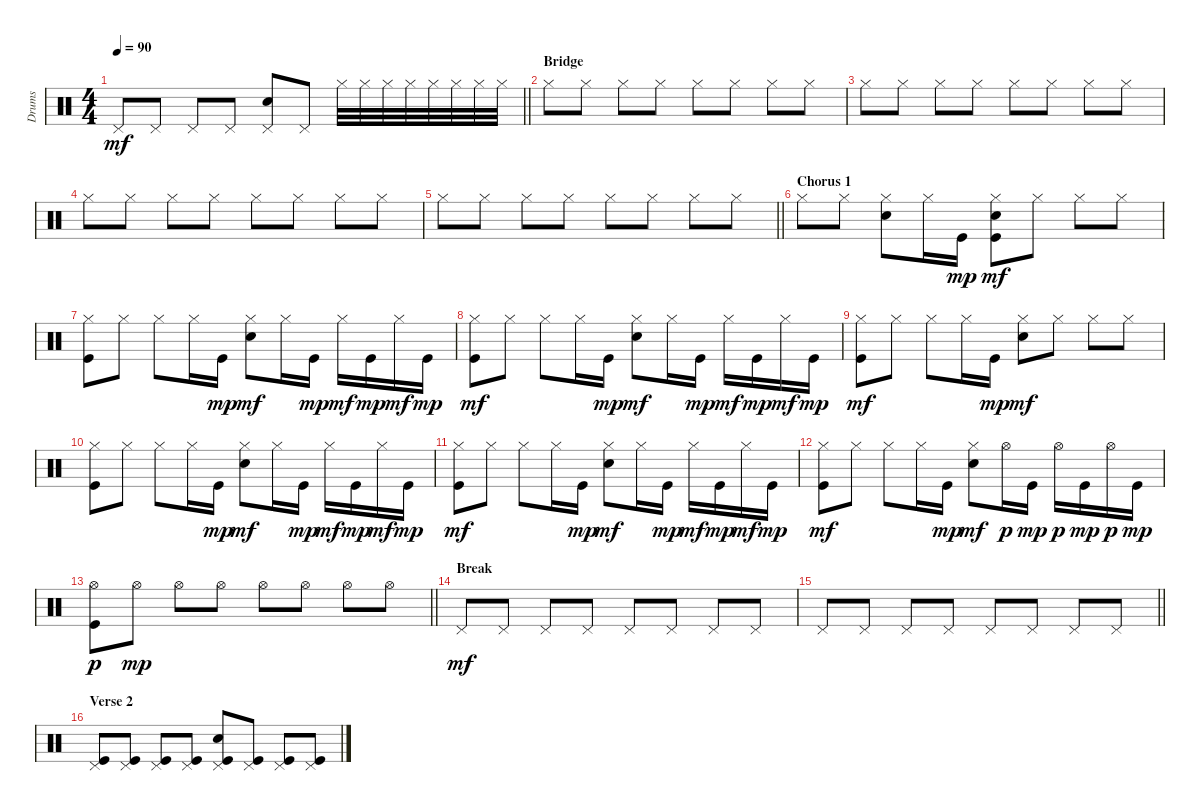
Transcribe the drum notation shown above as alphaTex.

\track ("Drums" "Drums") {instrument percussion}
\staff {score}
\articulation defaults
\ts (4 4)
\tempo 90
\clef neutral
\barLineRight lightlight
\ks c "Pedal Hi-Hat (hit)".8{dy mf} "Pedal Hi-Hat (hit)".8 "Pedal Hi-Hat (hit)".8 "Pedal Hi-Hat (hit)".8
("Electric Snare (hit)" "Pedal Hi-Hat (hit)").8 "Pedal Hi-Hat (hit)".8 "Hi-Hat (closed)".32 "Hi-Hat (closed)".32 "Hi-Hat (closed)".32 "Hi-Hat (closed)".32 "Hi-Hat (closed)".32 "Hi-Hat (closed)".32 "Hi-Hat (closed)".32 "Hi-Hat (closed)".32 |
\section ("" "Bridge")
"Hi-Hat (closed)".8 "Hi-Hat (closed)".8 "Hi-Hat (closed)".8 "Hi-Hat (closed)".8 "Hi-Hat (closed)".8 "Hi-Hat (closed)".8 "Hi-Hat (closed)".8 "Hi-Hat (closed)".8 |
"Hi-Hat (closed)".8 "Hi-Hat (closed)".8 "Hi-Hat (closed)".8 "Hi-Hat (closed)".8 "Hi-Hat (closed)".8 "Hi-Hat (closed)".8 "Hi-Hat (closed)".8 "Hi-Hat (closed)".8 |
"Hi-Hat (closed)".8 "Hi-Hat (closed)".8 "Hi-Hat (closed)".8 "Hi-Hat (closed)".8 "Hi-Hat (closed)".8 "Hi-Hat (closed)".8 "Hi-Hat (closed)".8 "Hi-Hat (closed)".8 |
\barLineRight lightlight "Hi-Hat (closed)".8 "Hi-Hat (closed)".8 "Hi-Hat (closed)".8 "Hi-Hat (closed)".8 "Hi-Hat (closed)".8 "Hi-Hat (closed)".8 "Hi-Hat (closed)".8 "Hi-Hat (closed)".8
|
\section ("" "Chorus 1")
"Hi-Hat (closed)".8 "Hi-Hat (closed)".8 ("Electric Snare (hit)" "Hi-Hat (closed)").8 "Hi-Hat (closed)".16 "Kick (hit)".16{dy mp} ("Kick (hit)" "Electric Snare (hit)" "Hi-Hat (closed)").8{dy mf} "Hi-Hat (closed)".8 "Hi-Hat (closed)".8 "Hi-Hat (closed)".8 |
("Kick (hit)" "Hi-Hat (closed)").8 "Hi-Hat (closed)".8 "Hi-Hat (closed)".8 "Hi-Hat (closed)".16 "Kick (hit)".16{dy mp} ("Electric Snare (hit)" "Hi-Hat (closed)").8{dy mf} "Hi-Hat (closed)".16 "Kick (hit)".16{dy mp} "Hi-Hat (closed)".16{dy mf} "Kick (hit)".16{dy mp} "Hi-Hat (closed)".16{dy mf} "Kick (hit)".16{dy mp} |
("Kick (hit)" "Hi-Hat (closed)").8{dy mf} "Hi-Hat (closed)".8 "Hi-Hat (closed)".8 "Hi-Hat (closed)".16 "Kick (hit)".16{dy mp} ("Electric Snare (hit)" "Hi-Hat (closed)").8{dy mf} "Hi-Hat (closed)".16 "Kick (hit)".16{dy mp} "Hi-Hat (closed)".16{dy mf} "Kick (hit)".16{dy mp} "Hi-Hat (closed)".16{dy mf} "Kick (hit)".16{dy mp} |
("Kick (hit)" "Hi-Hat (closed)").8{dy mf} "Hi-Hat (closed)".8 "Hi-Hat (closed)".8 "Hi-Hat (closed)".16 "Kick (hit)".16{dy mp} ("Electric Snare (hit)" "Hi-Hat (closed)").8{dy mf} "Hi-Hat (closed)".8 "Hi-Hat (closed)".8 "Hi-Hat (closed)".8 |
("Kick (hit)" "Hi-Hat (closed)").8 "Hi-Hat (closed)".8 "Hi-Hat (closed)".8 "Hi-Hat (closed)".16 "Kick (hit)".16{dy mp} ("Electric Snare (hit)" "Hi-Hat (closed)").8{dy mf} "Hi-Hat (closed)".16 "Kick (hit)".16{dy mp} "Hi-Hat (closed)".16{dy mf} "Kick (hit)".16{dy mp} "Hi-Hat (closed)".16{dy mf} "Kick (hit)".16{dy mp} |
("Kick (hit)" "Hi-Hat (closed)").8{dy mf} "Hi-Hat (closed)".8 "Hi-Hat (closed)".8 "Hi-Hat (closed)".16 "Kick (hit)".16{dy mp} ("Electric Snare (hit)" "Hi-Hat (closed)").8{dy mf} "Hi-Hat (closed)".16 "Kick (hit)".16{dy mp} "Hi-Hat (closed)".16{dy mf} "Kick (hit)".16{dy mp} "Hi-Hat (closed)".16{dy mf} "Kick (hit)".16{dy mp} |
("Kick (hit)" "Hi-Hat (closed)").8{dy mf} "Hi-Hat (closed)".8 "Hi-Hat (closed)".8 "Hi-Hat (closed)".16 "Kick (hit)".16{dy mp} ("Electric Snare (hit)" "Hi-Hat (closed)").8{dy mf} "Hi-Hat (open)".16{dy p} "Kick (hit)".16{dy mp} "Hi-Hat (open)".16{dy p} "Kick (hit)".16{dy mp} "Hi-Hat (open)".16{dy p} "Kick (hit)".16{dy mp} |
\barLineRight lightlight
("Kick (hit)" "Hi-Hat (open)").8{dy p} "Hi-Hat (open)".8{dy mp} "Hi-Hat (open)".8 "Hi-Hat (open)".8 "Hi-Hat (open)".8 "Hi-Hat (open)".8 "Hi-Hat (open)".8 "Hi-Hat (open)".8 |
\section ("" "Break")
"Pedal Hi-Hat (hit)".8{dy mf} "Pedal Hi-Hat (hit)".8 "Pedal Hi-Hat (hit)".8 "Pedal Hi-Hat (hit)".8 "Pedal Hi-Hat (hit)".8 "Pedal Hi-Hat (hit)".8 "Pedal Hi-Hat (hit)".8 "Pedal Hi-Hat (hit)".8 |
\barLineRight lightlight "Pedal Hi-Hat (hit)".8 "Pedal Hi-Hat (hit)".8 "Pedal Hi-Hat (hit)".8 "Pedal Hi-Hat (hit)".8 "Pedal Hi-Hat (hit)".8 "Pedal Hi-Hat (hit)".8 "Pedal Hi-Hat (hit)".8 "Pedal Hi-Hat (hit)".8
|
\section ("" "Verse 2")
("Kick (hit)" "Pedal Hi-Hat (hit)").8 ("Kick (hit)" "Pedal Hi-Hat (hit)").8 ("Kick (hit)" "Pedal Hi-Hat (hit)").8 ("Kick (hit)" "Pedal Hi-Hat (hit)").8 ("Kick (hit)" "Electric Snare (hit)" "Pedal Hi-Hat (hit)").8 ("Kick (hit)" "Pedal Hi-Hat (hit)").8 ("Kick (hit)" "Pedal Hi-Hat (hit)").8 ("Kick (hit)" "Pedal Hi-Hat (hit)").8
